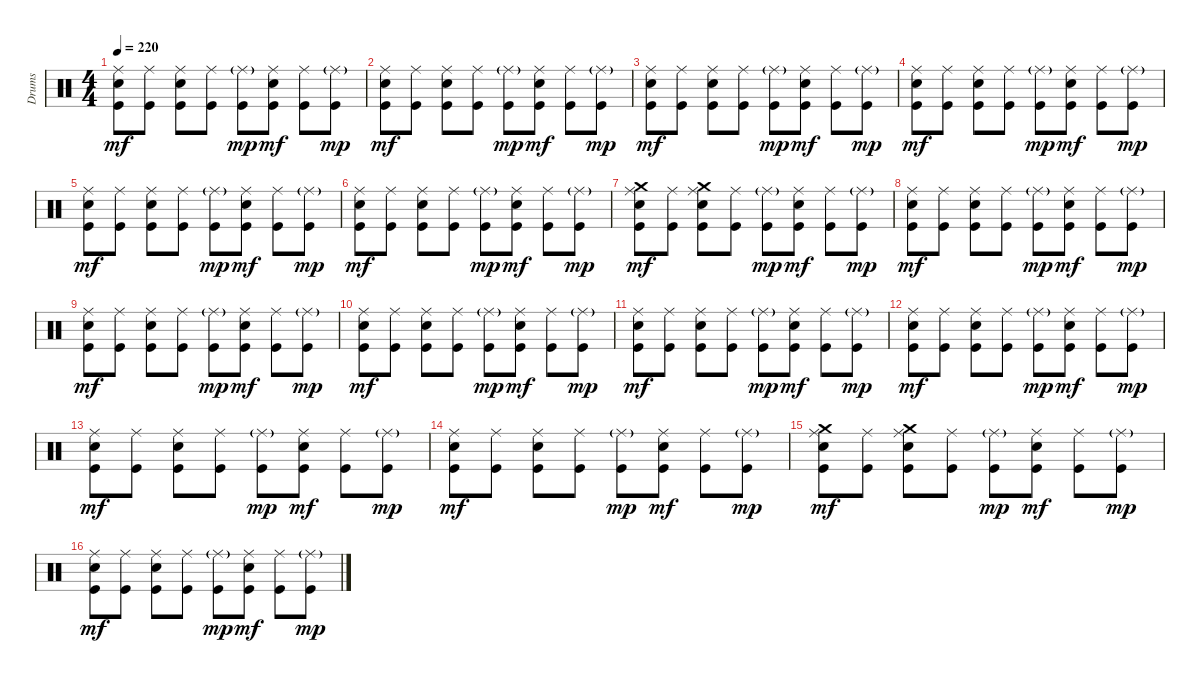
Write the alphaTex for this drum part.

\track ("Drums" "Drums") {instrument percussion}
\staff {score}
\articulation defaults
\ts (4 4)
\tempo 220
\clef neutral
\ks c
("Ride (middle)" "Electric Snare (hit)" "Kick (hit)").8{dy mf} ("Ride (middle)" "Kick (hit)").8 ("Ride (middle)" "Electric Snare (hit)" "Kick (hit)").8 ("Ride (middle)" "Kick (hit)").8 ("Ride (middle)"{g} "Kick (hit)").8{dy mp} ("Ride (middle)" "Electric Snare (hit)" "Kick (hit)").8{dy mf} ("Ride (middle)" "Kick (hit)").8 ("Ride (middle)"{g} "Kick (hit)").8{dy mp} |
("Ride (middle)" "Electric Snare (hit)" "Kick (hit)").8{dy mf} ("Ride (middle)" "Kick (hit)").8 ("Ride (middle)" "Electric Snare (hit)" "Kick (hit)").8 ("Ride (middle)" "Kick (hit)").8 ("Ride (middle)"{g} "Kick (hit)").8{dy mp} ("Ride (middle)" "Electric Snare (hit)" "Kick (hit)").8{dy mf} ("Ride (middle)" "Kick (hit)").8 ("Ride (middle)"{g} "Kick (hit)").8{dy mp} |
("Ride (middle)" "Electric Snare (hit)" "Kick (hit)").8{dy mf} ("Ride (middle)" "Kick (hit)").8 ("Ride (middle)" "Electric Snare (hit)" "Kick (hit)").8 ("Ride (middle)" "Kick (hit)").8 ("Ride (middle)"{g} "Kick (hit)").8{dy mp} ("Ride (middle)" "Electric Snare (hit)" "Kick (hit)").8{dy mf} ("Ride (middle)" "Kick (hit)").8 ("Ride (middle)"{g} "Kick (hit)").8{dy mp} |
("Ride (middle)" "Electric Snare (hit)" "Kick (hit)").8{dy mf} ("Ride (middle)" "Kick (hit)").8 ("Ride (middle)" "Electric Snare (hit)" "Kick (hit)").8 ("Ride (middle)" "Kick (hit)").8 ("Ride (middle)"{g} "Kick (hit)").8{dy mp} ("Ride (middle)" "Electric Snare (hit)" "Kick (hit)").8{dy mf} ("Ride (middle)" "Kick (hit)").8 ("Ride (middle)"{g} "Kick (hit)").8{dy mp} |
("Ride (middle)" "Electric Snare (hit)" "Kick (hit)").8{dy mf} ("Ride (middle)" "Kick (hit)").8 ("Ride (middle)" "Electric Snare (hit)" "Kick (hit)").8 ("Ride (middle)" "Kick (hit)").8 ("Ride (middle)"{g} "Kick (hit)").8{dy mp} ("Ride (middle)" "Electric Snare (hit)" "Kick (hit)").8{dy mf} ("Ride (middle)" "Kick (hit)").8 ("Ride (middle)"{g} "Kick (hit)").8{dy mp} |
("Ride (middle)" "Electric Snare (hit)" "Kick (hit)").8{dy mf} ("Ride (middle)" "Kick (hit)").8 ("Ride (middle)" "Electric Snare (hit)" "Kick (hit)").8 ("Ride (middle)" "Kick (hit)").8 ("Ride (middle)"{g} "Kick (hit)").8{dy mp} ("Ride (middle)" "Electric Snare (hit)" "Kick (hit)").8{dy mf} ("Ride (middle)" "Kick (hit)").8 ("Ride (middle)"{g} "Kick (hit)").8{dy mp} |
("Crash medium (hit)" "Ride (middle)" "Electric Snare (hit)" "Kick (hit)").8{dy mf} ("Ride (middle)" "Kick (hit)").8 ("Crash medium (hit)" "Ride (middle)" "Electric Snare (hit)" "Kick (hit)").8 ("Ride (middle)" "Kick (hit)").8 ("Ride (middle)"{g} "Kick (hit)").8{dy mp} ("Ride (middle)" "Electric Snare (hit)" "Kick (hit)").8{dy mf} ("Ride (middle)" "Kick (hit)").8 ("Ride (middle)"{g} "Kick (hit)").8{dy mp} |
("Ride (middle)" "Electric Snare (hit)" "Kick (hit)").8{dy mf} ("Ride (middle)" "Kick (hit)").8 ("Ride (middle)" "Electric Snare (hit)" "Kick (hit)").8 ("Ride (middle)" "Kick (hit)").8 ("Ride (middle)"{g} "Kick (hit)").8{dy mp} ("Ride (middle)" "Electric Snare (hit)" "Kick (hit)").8{dy mf} ("Ride (middle)" "Kick (hit)").8 ("Ride (middle)"{g} "Kick (hit)").8{dy mp} |
("Ride (middle)" "Electric Snare (hit)" "Kick (hit)").8{dy mf} ("Ride (middle)" "Kick (hit)").8 ("Ride (middle)" "Electric Snare (hit)" "Kick (hit)").8 ("Ride (middle)" "Kick (hit)").8 ("Ride (middle)"{g} "Kick (hit)").8{dy mp} ("Ride (middle)" "Electric Snare (hit)" "Kick (hit)").8{dy mf} ("Ride (middle)" "Kick (hit)").8 ("Ride (middle)"{g} "Kick (hit)").8{dy mp} |
("Ride (middle)" "Electric Snare (hit)" "Kick (hit)").8{dy mf} ("Ride (middle)" "Kick (hit)").8 ("Ride (middle)" "Electric Snare (hit)" "Kick (hit)").8 ("Ride (middle)" "Kick (hit)").8 ("Ride (middle)"{g} "Kick (hit)").8{dy mp} ("Ride (middle)" "Electric Snare (hit)" "Kick (hit)").8{dy mf} ("Ride (middle)" "Kick (hit)").8 ("Ride (middle)"{g} "Kick (hit)").8{dy mp} |
("Ride (middle)" "Electric Snare (hit)" "Kick (hit)").8{dy mf} ("Ride (middle)" "Kick (hit)").8 ("Ride (middle)" "Electric Snare (hit)" "Kick (hit)").8 ("Ride (middle)" "Kick (hit)").8 ("Ride (middle)"{g} "Kick (hit)").8{dy mp} ("Ride (middle)" "Electric Snare (hit)" "Kick (hit)").8{dy mf} ("Ride (middle)" "Kick (hit)").8 ("Ride (middle)"{g} "Kick (hit)").8{dy mp} |
("Ride (middle)" "Electric Snare (hit)" "Kick (hit)").8{dy mf} ("Ride (middle)" "Kick (hit)").8 ("Ride (middle)" "Electric Snare (hit)" "Kick (hit)").8 ("Ride (middle)" "Kick (hit)").8 ("Ride (middle)"{g} "Kick (hit)").8{dy mp} ("Ride (middle)" "Electric Snare (hit)" "Kick (hit)").8{dy mf} ("Ride (middle)" "Kick (hit)").8 ("Ride (middle)"{g} "Kick (hit)").8{dy mp} |
("Ride (middle)" "Electric Snare (hit)" "Kick (hit)").8{dy mf} ("Ride (middle)" "Kick (hit)").8 ("Ride (middle)" "Electric Snare (hit)" "Kick (hit)").8 ("Ride (middle)" "Kick (hit)").8 ("Ride (middle)"{g} "Kick (hit)").8{dy mp} ("Ride (middle)" "Electric Snare (hit)" "Kick (hit)").8{dy mf} ("Ride (middle)" "Kick (hit)").8 ("Ride (middle)"{g} "Kick (hit)").8{dy mp} |
("Ride (middle)" "Electric Snare (hit)" "Kick (hit)").8{dy mf} ("Ride (middle)" "Kick (hit)").8 ("Ride (middle)" "Electric Snare (hit)" "Kick (hit)").8 ("Ride (middle)" "Kick (hit)").8 ("Ride (middle)"{g} "Kick (hit)").8{dy mp} ("Ride (middle)" "Electric Snare (hit)" "Kick (hit)").8{dy mf} ("Ride (middle)" "Kick (hit)").8 ("Ride (middle)"{g} "Kick (hit)").8{dy mp} |
("Crash medium (hit)" "Ride (middle)" "Electric Snare (hit)" "Kick (hit)").8{dy mf} ("Ride (middle)" "Kick (hit)").8 ("Crash medium (hit)" "Ride (middle)" "Electric Snare (hit)" "Kick (hit)").8 ("Ride (middle)" "Kick (hit)").8 ("Ride (middle)"{g} "Kick (hit)").8{dy mp} ("Ride (middle)" "Electric Snare (hit)" "Kick (hit)").8{dy mf} ("Ride (middle)" "Kick (hit)").8 ("Ride (middle)"{g} "Kick (hit)").8{dy mp} |
("Ride (middle)" "Electric Snare (hit)" "Kick (hit)").8{dy mf} ("Ride (middle)" "Kick (hit)").8 ("Ride (middle)" "Electric Snare (hit)" "Kick (hit)").8 ("Ride (middle)" "Kick (hit)").8 ("Ride (middle)"{g} "Kick (hit)").8{dy mp} ("Ride (middle)" "Electric Snare (hit)" "Kick (hit)").8{dy mf} ("Ride (middle)" "Kick (hit)").8 ("Ride (middle)"{g} "Kick (hit)").8{dy mp}
